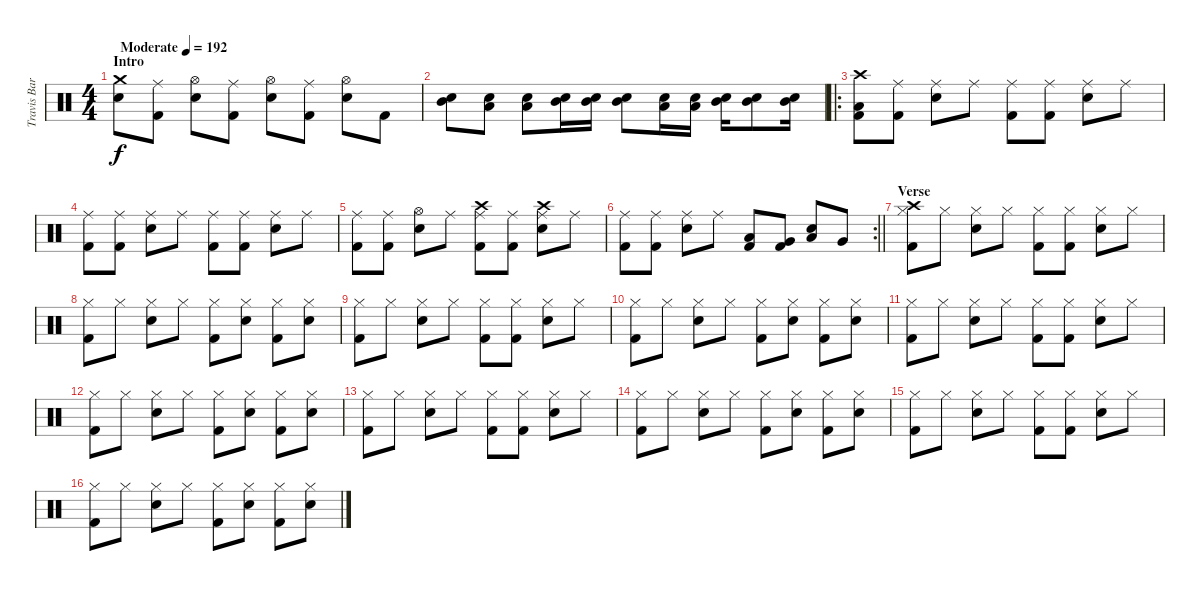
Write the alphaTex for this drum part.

\track ("Travis Barker" "Travis Bar") {instrument percussion}
\staff {score}
\articulation defaults
\ts (4 4)
\section ("" "Intro")
\tempo (192 "Moderate")
\clef neutral
\ks c
("Electric Snare (hit)" "Crash medium (hit)").8{dy f} ("Kick (hit) 2" "Ride (middle)").8 ("Electric Snare (hit)" "Hi-Hat (open)").8 ("Kick (hit) 2" "Ride (middle)").8 ("Electric Snare (hit)" "Hi-Hat (open)").8 ("Kick (hit) 2" "Ride (middle)").8 ("Electric Snare (hit)" "Hi-Hat (open)").8 "Kick (hit) 2".8 |
("Mid Tom (hit)" "Snare (hit) 2").8 ("Low Floor Tom (hit)" "Snare (hit) 2").8 ("Low Floor Tom (hit)" "Snare (hit) 2").8 ("Mid Tom (hit)" "Snare (hit) 2").16 ("Mid Tom (hit)" "Snare (hit) 2").16 ("Mid Tom (hit)" "Snare (hit) 2").8 ("Low Floor Tom (hit)" "Snare (hit) 2").16 ("Low Floor Tom (hit)" "Snare (hit) 2").16 ("Mid Tom (hit)" "Snare (hit) 2").16 ("Mid Tom (hit)" "Snare (hit) 2").8 ("Mid Tom (hit)" "Snare (hit) 2").16 |
\ro
("Low Floor Tom (hit)" "Kick (hit) 2" "Crash high (hit)").8 ("Kick (hit) 2" "Ride (middle)").8 ("Snare (hit) 2" "Ride (middle)").8 "Ride (middle)".8 ("Kick (hit) 2" "Ride (middle)").8 ("Kick (hit) 2" "Ride (middle)").8 ("Snare (hit) 2" "Ride (middle)").8 "Ride (middle)".8 |
("Kick (hit) 2" "Ride (middle)").8 ("Kick (hit) 2" "Ride (middle)").8 ("Snare (hit) 2" "Ride (middle)").8 "Ride (middle)".8 ("Kick (hit) 2" "Ride (middle)").8 ("Kick (hit) 2" "Ride (middle)").8 ("Snare (hit) 2" "Ride (middle)").8 "Ride (middle)".8 |
("Kick (hit) 2" "Ride (middle)").8 ("Kick (hit) 2" "Ride (middle)").8 ("Snare (hit) 2" "Hi-Hat (open)").8 "Ride (middle)".8 ("Kick (hit) 2" "Ride (middle)" "Crash high (hit)").8 ("Kick (hit) 2" "Ride (middle)").8 ("Snare (hit) 2" "Ride (middle)" "Crash high (hit)").8 "Ride (middle)".8 |
\rc 2
\barLineRight lightlight
("Kick (hit) 2" "Ride (middle)").8 ("Kick (hit) 2" "Ride (middle)").8 ("Snare (hit) 2" "Ride (middle)").8 "Ride (middle)".8 ("Kick (hit) 2" "Low Tom (hit)").8 ("Kick (hit) 2" "Very Low Tom (hit)").8 ("Snare (hit) 2" "Low Tom (hit)").8 "Very Low Tom (hit)".8 |
\section ("" "Verse")
("Crash high (hit)" "Hi-Hat (closed)" "Kick (hit) 2").8 "Hi-Hat (closed)".8 ("Hi-Hat (closed)" "Snare (hit) 2").8 "Hi-Hat (closed)".8 ("Hi-Hat (closed)" "Kick (hit) 2").8 ("Hi-Hat (closed)" "Kick (hit) 2").8 ("Hi-Hat (closed)" "Snare (hit) 2").8 "Hi-Hat (closed)".8 |
("Hi-Hat (closed)" "Kick (hit) 2").8 "Hi-Hat (closed)".8 ("Hi-Hat (closed)" "Snare (hit) 2").8 "Hi-Hat (closed)".8 ("Hi-Hat (closed)" "Kick (hit) 2").8 ("Hi-Hat (closed)" "Snare (hit) 2").8 ("Hi-Hat (closed)" "Kick (hit) 2").8 ("Hi-Hat (closed)" "Snare (hit) 2").8 |
("Hi-Hat (closed)" "Kick (hit) 2").8 "Hi-Hat (closed)".8 ("Hi-Hat (closed)" "Snare (hit) 2").8 "Hi-Hat (closed)".8 ("Hi-Hat (closed)" "Kick (hit) 2").8 ("Hi-Hat (closed)" "Kick (hit) 2").8 ("Hi-Hat (closed)" "Snare (hit) 2").8 "Hi-Hat (closed)".8 |
("Hi-Hat (closed)" "Kick (hit) 2").8 "Hi-Hat (closed)".8 ("Hi-Hat (closed)" "Snare (hit) 2").8 "Hi-Hat (closed)".8 ("Hi-Hat (closed)" "Kick (hit) 2").8 ("Hi-Hat (closed)" "Snare (hit) 2").8 ("Hi-Hat (closed)" "Kick (hit) 2").8 ("Hi-Hat (closed)" "Snare (hit) 2").8 |
("Hi-Hat (closed)" "Kick (hit) 2").8 "Hi-Hat (closed)".8 ("Hi-Hat (closed)" "Snare (hit) 2").8 "Hi-Hat (closed)".8 ("Hi-Hat (closed)" "Kick (hit) 2").8 ("Hi-Hat (closed)" "Kick (hit) 2").8 ("Hi-Hat (closed)" "Snare (hit) 2").8 "Hi-Hat (closed)".8 |
("Hi-Hat (closed)" "Kick (hit) 2").8 "Hi-Hat (closed)".8 ("Hi-Hat (closed)" "Snare (hit) 2").8 "Hi-Hat (closed)".8 ("Hi-Hat (closed)" "Kick (hit) 2").8 ("Hi-Hat (closed)" "Snare (hit) 2").8 ("Hi-Hat (closed)" "Kick (hit) 2").8 ("Hi-Hat (closed)" "Snare (hit) 2").8 |
("Hi-Hat (closed)" "Kick (hit) 2").8 "Hi-Hat (closed)".8 ("Hi-Hat (closed)" "Snare (hit) 2").8 "Hi-Hat (closed)".8 ("Hi-Hat (closed)" "Kick (hit) 2").8 ("Hi-Hat (closed)" "Kick (hit) 2").8 ("Hi-Hat (closed)" "Snare (hit) 2").8 "Hi-Hat (closed)".8 |
("Hi-Hat (closed)" "Kick (hit) 2").8 "Hi-Hat (closed)".8 ("Hi-Hat (closed)" "Snare (hit) 2").8 "Hi-Hat (closed)".8 ("Hi-Hat (closed)" "Kick (hit) 2").8 ("Hi-Hat (closed)" "Snare (hit) 2").8 ("Hi-Hat (closed)" "Kick (hit) 2").8 ("Hi-Hat (closed)" "Snare (hit) 2").8 |
("Hi-Hat (closed)" "Kick (hit) 2").8 "Hi-Hat (closed)".8 ("Hi-Hat (closed)" "Snare (hit) 2").8 "Hi-Hat (closed)".8 ("Hi-Hat (closed)" "Kick (hit) 2").8 ("Hi-Hat (closed)" "Kick (hit) 2").8 ("Hi-Hat (closed)" "Snare (hit) 2").8 "Hi-Hat (closed)".8 |
("Hi-Hat (closed)" "Kick (hit) 2").8 "Hi-Hat (closed)".8 ("Hi-Hat (closed)" "Snare (hit) 2").8 "Hi-Hat (closed)".8 ("Hi-Hat (closed)" "Kick (hit) 2").8 ("Hi-Hat (closed)" "Snare (hit) 2").8 ("Hi-Hat (closed)" "Kick (hit) 2").8 ("Hi-Hat (closed)" "Snare (hit) 2").8
